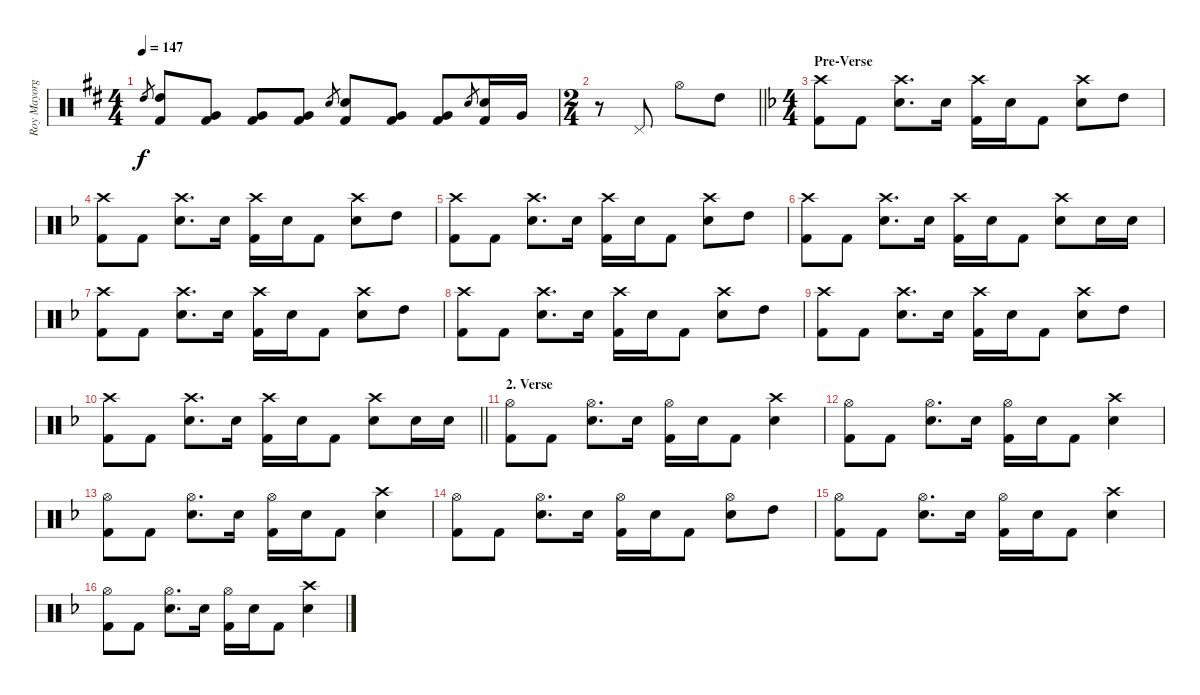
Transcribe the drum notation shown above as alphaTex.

\track ("Roy Mayorga (Drums)" "Roy Mayorg") {instrument percussion}
\staff {score}
\articulation defaults
\ts (4 4)
\tempo 147
\clef neutral
\ks d "High Tom (hit)".8{gr dy f}
("High Tom (hit)" "Kick (hit) 2").8 ("Very Low Tom (hit)" "Kick (hit) 2").8 ("Very Low Tom (hit)" "Kick (hit) 2").8 ("Very Low Tom (hit)" "Kick (hit) 2").8 "Snare (hit) 2".8{gr} ("Snare (hit) 2" "Kick (hit) 2").8 ("Very Low Tom (hit)" "Kick (hit) 2").8 ("Very Low Tom (hit)" "Kick (hit) 2").8 "Snare (hit) 2".8{gr} ("Snare (hit) 2" "Kick (hit) 2").16 "Very Low Tom (hit)".16 |
\ts (2 4)
\barLineRight lightlight
r.8 "Pedal Hi-Hat (hit)".8 "Hi-Hat (open)".8 "High Tom (hit)".8 |
\ts (4 4)
\section ("" "Pre-Verse")
\ks f
("Crash high (hit)" "Kick (hit) 2").8 "Kick (hit) 2".8 ("Crash high (hit)" "Snare (hit) 2").8{d} "Snare (hit) 2".16 ("Crash high (hit)" "Kick (hit) 2").16 "Snare (hit) 2".16 "Kick (hit) 2".8 ("Crash high (hit)" "Snare (hit) 2").8 "High Tom (hit)".8 |
("Crash high (hit)" "Kick (hit) 2").8 "Kick (hit) 2".8 ("Crash high (hit)" "Snare (hit) 2").8{d} "Snare (hit) 2".16 ("Crash high (hit)" "Kick (hit) 2").16 "Snare (hit) 2".16 "Kick (hit) 2".8 ("Crash high (hit)" "Snare (hit) 2").8 "High Tom (hit)".8 |
("Crash high (hit)" "Kick (hit) 2").8 "Kick (hit) 2".8 ("Crash high (hit)" "Snare (hit) 2").8{d} "Snare (hit) 2".16 ("Crash high (hit)" "Kick (hit) 2").16 "Snare (hit) 2".16 "Kick (hit) 2".8 ("Crash high (hit)" "Snare (hit) 2").8 "High Tom (hit)".8 |
("Crash high (hit)" "Kick (hit) 2").8 "Kick (hit) 2".8 ("Crash high (hit)" "Snare (hit) 2").8{d} "Snare (hit) 2".16 ("Crash high (hit)" "Kick (hit) 2").16 "Snare (hit) 2".16 "Kick (hit) 2".8 ("Crash high (hit)" "Snare (hit) 2").8 "Snare (hit) 2".16 "Snare (hit) 2".16 |
("Crash high (hit)" "Kick (hit) 2").8 "Kick (hit) 2".8 ("Crash high (hit)" "Snare (hit) 2").8{d} "Snare (hit) 2".16 ("Crash high (hit)" "Kick (hit) 2").16 "Snare (hit) 2".16 "Kick (hit) 2".8 ("Crash high (hit)" "Snare (hit) 2").8 "High Tom (hit)".8 |
("Crash high (hit)" "Kick (hit) 2").8 "Kick (hit) 2".8 ("Crash high (hit)" "Snare (hit) 2").8{d} "Snare (hit) 2".16 ("Crash high (hit)" "Kick (hit) 2").16 "Snare (hit) 2".16 "Kick (hit) 2".8 ("Crash high (hit)" "Snare (hit) 2").8 "High Tom (hit)".8 |
("Crash high (hit)" "Kick (hit) 2").8 "Kick (hit) 2".8 ("Crash high (hit)" "Snare (hit) 2").8{d} "Snare (hit) 2".16 ("Crash high (hit)" "Kick (hit) 2").16 "Snare (hit) 2".16 "Kick (hit) 2".8 ("Crash high (hit)" "Snare (hit) 2").8 "High Tom (hit)".8 |
\barLineRight lightlight
("Crash high (hit)" "Kick (hit) 2").8 "Kick (hit) 2".8 ("Crash high (hit)" "Snare (hit) 2").8{d} "Snare (hit) 2".16 ("Crash high (hit)" "Kick (hit) 2").16 "Snare (hit) 2".16 "Kick (hit) 2".8 ("Crash high (hit)" "Snare (hit) 2").8 "Snare (hit) 2".16 "Snare (hit) 2".16 |
\section ("" "2. Verse")
("Hi-Hat (open)" "Kick (hit) 2").8 "Kick (hit) 2".8 ("Hi-Hat (open)" "Snare (hit) 2").8{d} "Snare (hit) 2".16 ("Hi-Hat (open)" "Kick (hit) 2").16 "Snare (hit) 2".16 "Kick (hit) 2".8 ("Crash high (hit)" "Snare (hit) 2").4 |
("Hi-Hat (open)" "Kick (hit) 2").8 "Kick (hit) 2".8 ("Hi-Hat (open)" "Snare (hit) 2").8{d} "Snare (hit) 2".16 ("Hi-Hat (open)" "Kick (hit) 2").16 "Snare (hit) 2".16 "Kick (hit) 2".8 ("Crash high (hit)" "Snare (hit) 2").4 |
("Hi-Hat (open)" "Kick (hit) 2").8 "Kick (hit) 2".8 ("Hi-Hat (open)" "Snare (hit) 2").8{d} "Snare (hit) 2".16 ("Hi-Hat (open)" "Kick (hit) 2").16 "Snare (hit) 2".16 "Kick (hit) 2".8 ("Crash high (hit)" "Snare (hit) 2").4 |
("Hi-Hat (open)" "Kick (hit) 2").8 "Kick (hit) 2".8 ("Hi-Hat (open)" "Snare (hit) 2").8{d} "Snare (hit) 2".16 ("Hi-Hat (open)" "Kick (hit) 2").16 "Snare (hit) 2".16 "Kick (hit) 2".8 ("Hi-Hat (open)" "Snare (hit) 2").8 "High Tom (hit)".8 |
("Hi-Hat (open)" "Kick (hit) 2").8 "Kick (hit) 2".8 ("Hi-Hat (open)" "Snare (hit) 2").8{d} "Snare (hit) 2".16 ("Hi-Hat (open)" "Kick (hit) 2").16 "Snare (hit) 2".16 "Kick (hit) 2".8 ("Crash high (hit)" "Snare (hit) 2").4 |
("Hi-Hat (open)" "Kick (hit) 2").8 "Kick (hit) 2".8 ("Hi-Hat (open)" "Snare (hit) 2").8{d} "Snare (hit) 2".16 ("Hi-Hat (open)" "Kick (hit) 2").16 "Snare (hit) 2".16 "Kick (hit) 2".8 ("Crash high (hit)" "Snare (hit) 2").4
